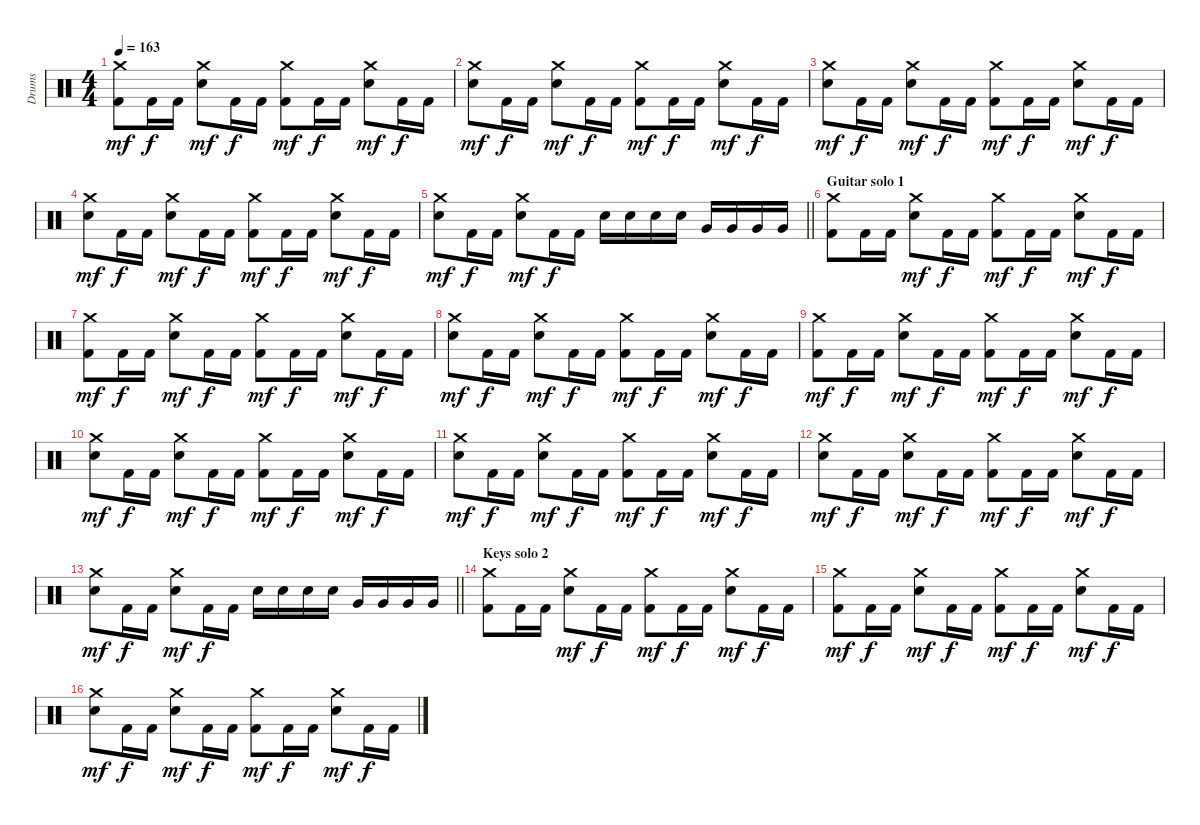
\track ("Drums" "Drums") {instrument percussion}
\staff {score}
\articulation defaults
\ts (4 4)
\tempo 163
\clef neutral
\ks c
("Crash medium (hit)" "Kick (hit) 2").8{dy mf} "Kick (hit) 2".16{dy f} "Kick (hit) 2".16 ("Crash medium (hit)" "Electric Snare (hit)").8{dy mf} "Kick (hit) 2".16{dy f} "Kick (hit) 2".16 ("Crash medium (hit)" "Kick (hit) 2").8{dy mf} "Kick (hit) 2".16{dy f} "Kick (hit) 2".16 ("Crash medium (hit)" "Electric Snare (hit)").8{dy mf} "Kick (hit) 2".16{dy f} "Kick (hit) 2".16 |
("Crash medium (hit)" "Electric Snare (hit)").8{dy mf} "Kick (hit) 2".16{dy f} "Kick (hit) 2".16 ("Crash medium (hit)" "Electric Snare (hit)").8{dy mf} "Kick (hit) 2".16{dy f} "Kick (hit) 2".16 ("Crash medium (hit)" "Kick (hit) 2").8{dy mf} "Kick (hit) 2".16{dy f} "Kick (hit) 2".16 ("Crash medium (hit)" "Electric Snare (hit)").8{dy mf} "Kick (hit) 2".16{dy f} "Kick (hit) 2".16 |
("Crash medium (hit)" "Electric Snare (hit)").8{dy mf} "Kick (hit) 2".16{dy f} "Kick (hit) 2".16 ("Crash medium (hit)" "Electric Snare (hit)").8{dy mf} "Kick (hit) 2".16{dy f} "Kick (hit) 2".16 ("Crash medium (hit)" "Kick (hit) 2").8{dy mf} "Kick (hit) 2".16{dy f} "Kick (hit) 2".16 ("Crash medium (hit)" "Electric Snare (hit)").8{dy mf} "Kick (hit) 2".16{dy f} "Kick (hit) 2".16 |
("Crash medium (hit)" "Electric Snare (hit)").8{dy mf} "Kick (hit) 2".16{dy f} "Kick (hit) 2".16 ("Crash medium (hit)" "Electric Snare (hit)").8{dy mf} "Kick (hit) 2".16{dy f} "Kick (hit) 2".16 ("Crash medium (hit)" "Kick (hit) 2").8{dy mf} "Kick (hit) 2".16{dy f} "Kick (hit) 2".16 ("Crash medium (hit)" "Electric Snare (hit)").8{dy mf} "Kick (hit) 2".16{dy f} "Kick (hit) 2".16 |
\barLineRight lightlight
("Crash medium (hit)" "Electric Snare (hit)").8{dy mf} "Kick (hit) 2".16{dy f} "Kick (hit) 2".16 ("Crash medium (hit)" "Electric Snare (hit)").8{dy mf} "Kick (hit) 2".16{dy f} "Kick (hit) 2".16 "Electric Snare (hit)".16 "Electric Snare (hit)".16 "Electric Snare (hit)".16 "Electric Snare (hit)".16 "Very Low Tom (hit)".16 "Very Low Tom (hit)".16 "Very Low Tom (hit)".16 "Very Low Tom (hit)".16 |
\section ("" "Guitar solo 1 ")
("Crash medium (hit)" "Kick (hit) 2").8 "Kick (hit) 2".16 "Kick (hit) 2".16 ("Crash medium (hit)" "Electric Snare (hit)").8{dy mf} "Kick (hit) 2".16{dy f} "Kick (hit) 2".16 ("Crash medium (hit)" "Kick (hit) 2").8{dy mf} "Kick (hit) 2".16{dy f} "Kick (hit) 2".16 ("Crash medium (hit)" "Electric Snare (hit)").8{dy mf} "Kick (hit) 2".16{dy f} "Kick (hit) 2".16 |
("Crash medium (hit)" "Kick (hit) 2").8{dy mf} "Kick (hit) 2".16{dy f} "Kick (hit) 2".16 ("Crash medium (hit)" "Electric Snare (hit)").8{dy mf} "Kick (hit) 2".16{dy f} "Kick (hit) 2".16 ("Crash medium (hit)" "Kick (hit) 2").8{dy mf} "Kick (hit) 2".16{dy f} "Kick (hit) 2".16 ("Crash medium (hit)" "Electric Snare (hit)").8{dy mf} "Kick (hit) 2".16{dy f} "Kick (hit) 2".16 |
("Crash medium (hit)" "Electric Snare (hit)").8{dy mf} "Kick (hit) 2".16{dy f} "Kick (hit) 2".16 ("Crash medium (hit)" "Electric Snare (hit)").8{dy mf} "Kick (hit) 2".16{dy f} "Kick (hit) 2".16 ("Crash medium (hit)" "Kick (hit) 2").8{dy mf} "Kick (hit) 2".16{dy f} "Kick (hit) 2".16 ("Crash medium (hit)" "Electric Snare (hit)").8{dy mf} "Kick (hit) 2".16{dy f} "Kick (hit) 2".16 |
("Crash medium (hit)" "Kick (hit) 2").8{dy mf} "Kick (hit) 2".16{dy f} "Kick (hit) 2".16 ("Crash medium (hit)" "Electric Snare (hit)").8{dy mf} "Kick (hit) 2".16{dy f} "Kick (hit) 2".16 ("Crash medium (hit)" "Kick (hit) 2").8{dy mf} "Kick (hit) 2".16{dy f} "Kick (hit) 2".16 ("Crash medium (hit)" "Electric Snare (hit)").8{dy mf} "Kick (hit) 2".16{dy f} "Kick (hit) 2".16 |
("Crash medium (hit)" "Electric Snare (hit)").8{dy mf} "Kick (hit) 2".16{dy f} "Kick (hit) 2".16 ("Crash medium (hit)" "Electric Snare (hit)").8{dy mf} "Kick (hit) 2".16{dy f} "Kick (hit) 2".16 ("Crash medium (hit)" "Kick (hit) 2").8{dy mf} "Kick (hit) 2".16{dy f} "Kick (hit) 2".16 ("Crash medium (hit)" "Electric Snare (hit)").8{dy mf} "Kick (hit) 2".16{dy f} "Kick (hit) 2".16 |
("Crash medium (hit)" "Electric Snare (hit)").8{dy mf} "Kick (hit) 2".16{dy f} "Kick (hit) 2".16 ("Crash medium (hit)" "Electric Snare (hit)").8{dy mf} "Kick (hit) 2".16{dy f} "Kick (hit) 2".16 ("Crash medium (hit)" "Kick (hit) 2").8{dy mf} "Kick (hit) 2".16{dy f} "Kick (hit) 2".16 ("Crash medium (hit)" "Electric Snare (hit)").8{dy mf} "Kick (hit) 2".16{dy f} "Kick (hit) 2".16 |
("Crash medium (hit)" "Electric Snare (hit)").8{dy mf} "Kick (hit) 2".16{dy f} "Kick (hit) 2".16 ("Crash medium (hit)" "Electric Snare (hit)").8{dy mf} "Kick (hit) 2".16{dy f} "Kick (hit) 2".16 ("Crash medium (hit)" "Kick (hit) 2").8{dy mf} "Kick (hit) 2".16{dy f} "Kick (hit) 2".16 ("Crash medium (hit)" "Electric Snare (hit)").8{dy mf} "Kick (hit) 2".16{dy f} "Kick (hit) 2".16 |
\barLineRight lightlight
("Crash medium (hit)" "Electric Snare (hit)").8{dy mf} "Kick (hit) 2".16{dy f} "Kick (hit) 2".16 ("Crash medium (hit)" "Electric Snare (hit)").8{dy mf} "Kick (hit) 2".16{dy f} "Kick (hit) 2".16 "Electric Snare (hit)".16 "Electric Snare (hit)".16 "Electric Snare (hit)".16 "Electric Snare (hit)".16 "Very Low Tom (hit)".16 "Very Low Tom (hit)".16 "Very Low Tom (hit)".16 "Very Low Tom (hit)".16 |
\section ("" "Keys solo 2")
("Crash medium (hit)" "Kick (hit) 2").8 "Kick (hit) 2".16 "Kick (hit) 2".16 ("Crash medium (hit)" "Electric Snare (hit)").8{dy mf} "Kick (hit) 2".16{dy f} "Kick (hit) 2".16 ("Crash medium (hit)" "Kick (hit) 2").8{dy mf} "Kick (hit) 2".16{dy f} "Kick (hit) 2".16 ("Crash medium (hit)" "Electric Snare (hit)").8{dy mf} "Kick (hit) 2".16{dy f} "Kick (hit) 2".16 |
("Crash medium (hit)" "Kick (hit) 2").8{dy mf} "Kick (hit) 2".16{dy f} "Kick (hit) 2".16 ("Crash medium (hit)" "Electric Snare (hit)").8{dy mf} "Kick (hit) 2".16{dy f} "Kick (hit) 2".16 ("Crash medium (hit)" "Kick (hit) 2").8{dy mf} "Kick (hit) 2".16{dy f} "Kick (hit) 2".16 ("Crash medium (hit)" "Electric Snare (hit)").8{dy mf} "Kick (hit) 2".16{dy f} "Kick (hit) 2".16 |
("Crash medium (hit)" "Electric Snare (hit)").8{dy mf} "Kick (hit) 2".16{dy f} "Kick (hit) 2".16 ("Crash medium (hit)" "Electric Snare (hit)").8{dy mf} "Kick (hit) 2".16{dy f} "Kick (hit) 2".16 ("Crash medium (hit)" "Kick (hit) 2").8{dy mf} "Kick (hit) 2".16{dy f} "Kick (hit) 2".16 ("Crash medium (hit)" "Electric Snare (hit)").8{dy mf} "Kick (hit) 2".16{dy f} "Kick (hit) 2".16
